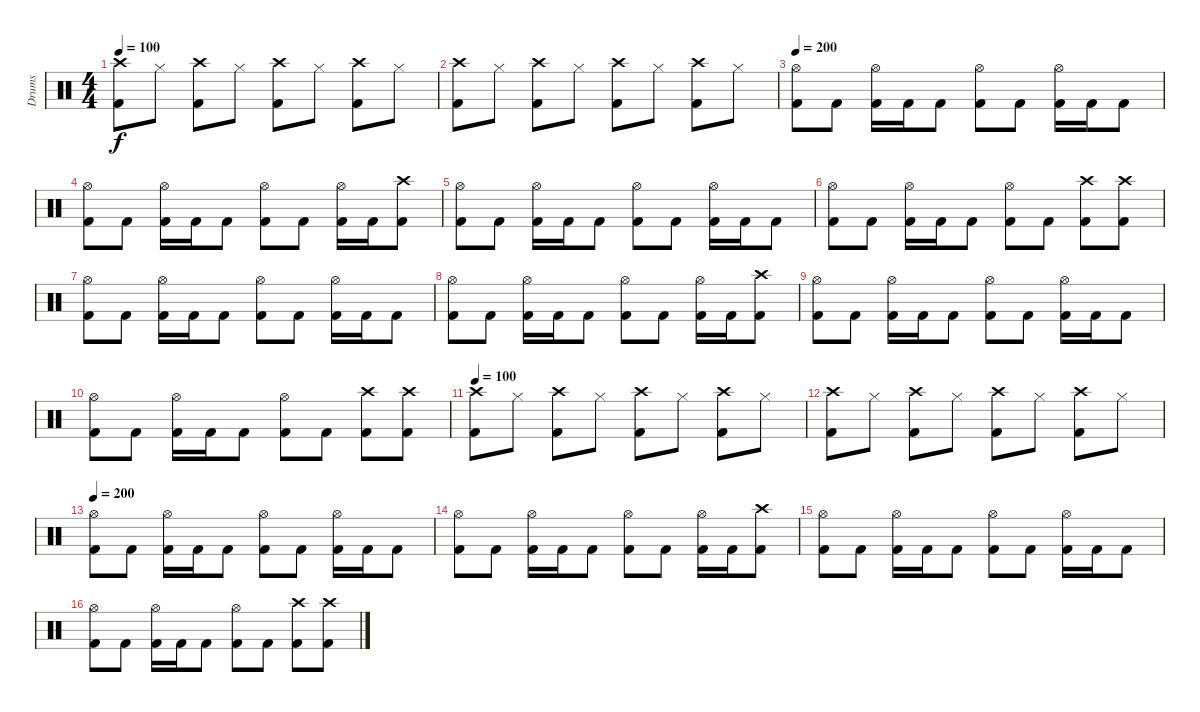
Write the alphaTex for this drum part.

\track ("Drums" "Drums") {instrument percussion}
\staff {score}
\articulation defaults
\ts (4 4)
\tempo 100
\clef neutral
\ks c
("Crash high (hit)" "Kick (hit) 2").8{dy f} "Hi-Hat (closed)".8 ("Crash high (hit)" "Kick (hit) 2").8 "Hi-Hat (closed)".8 ("Crash high (hit)" "Kick (hit) 2").8 "Hi-Hat (closed)".8 ("Crash high (hit)" "Kick (hit) 2").8 "Hi-Hat (closed)".8 |
("Crash high (hit)" "Kick (hit) 2").8 "Hi-Hat (closed)".8 ("Crash high (hit)" "Kick (hit) 2").8 "Hi-Hat (closed)".8 ("Crash high (hit)" "Kick (hit) 2").8 "Hi-Hat (closed)".8 ("Crash high (hit)" "Kick (hit) 2").8 "Hi-Hat (closed)".8 |
\tempo 200
("Hi-Hat (open)" "Kick (hit) 2").8 "Kick (hit) 2".8 ("Hi-Hat (open)" "Kick (hit) 2").16 "Kick (hit) 2".16 "Kick (hit) 2".8 ("Hi-Hat (open)" "Kick (hit) 2").8 "Kick (hit) 2".8 ("Hi-Hat (open)" "Kick (hit) 2").16 "Kick (hit) 2".16 "Kick (hit) 2".8 |
("Hi-Hat (open)" "Kick (hit) 2").8 "Kick (hit) 2".8 ("Hi-Hat (open)" "Kick (hit) 2").16 "Kick (hit) 2".16 "Kick (hit) 2".8 ("Hi-Hat (open)" "Kick (hit) 2").8 "Kick (hit) 2".8 ("Hi-Hat (open)" "Kick (hit) 2").16 "Kick (hit) 2".16 ("Crash high (hit)" "Kick (hit) 2").8 |
("Hi-Hat (open)" "Kick (hit) 2").8 "Kick (hit) 2".8 ("Hi-Hat (open)" "Kick (hit) 2").16 "Kick (hit) 2".16 "Kick (hit) 2".8 ("Hi-Hat (open)" "Kick (hit) 2").8 "Kick (hit) 2".8 ("Hi-Hat (open)" "Kick (hit) 2").16 "Kick (hit) 2".16 "Kick (hit) 2".8 |
("Hi-Hat (open)" "Kick (hit) 2").8 "Kick (hit) 2".8 ("Hi-Hat (open)" "Kick (hit) 2").16 "Kick (hit) 2".16 "Kick (hit) 2".8 ("Hi-Hat (open)" "Kick (hit) 2").8 "Kick (hit) 2".8 ("Crash high (hit)" "Kick (hit) 2").8 ("Crash high (hit)" "Kick (hit) 2").8 |
("Hi-Hat (open)" "Kick (hit) 2").8 "Kick (hit) 2".8 ("Hi-Hat (open)" "Kick (hit) 2").16 "Kick (hit) 2".16 "Kick (hit) 2".8 ("Hi-Hat (open)" "Kick (hit) 2").8 "Kick (hit) 2".8 ("Hi-Hat (open)" "Kick (hit) 2").16 "Kick (hit) 2".16 "Kick (hit) 2".8 |
("Hi-Hat (open)" "Kick (hit) 2").8 "Kick (hit) 2".8 ("Hi-Hat (open)" "Kick (hit) 2").16 "Kick (hit) 2".16 "Kick (hit) 2".8 ("Hi-Hat (open)" "Kick (hit) 2").8 "Kick (hit) 2".8 ("Hi-Hat (open)" "Kick (hit) 2").16 "Kick (hit) 2".16 ("Crash high (hit)" "Kick (hit) 2").8 |
("Hi-Hat (open)" "Kick (hit) 2").8 "Kick (hit) 2".8 ("Hi-Hat (open)" "Kick (hit) 2").16 "Kick (hit) 2".16 "Kick (hit) 2".8 ("Hi-Hat (open)" "Kick (hit) 2").8 "Kick (hit) 2".8 ("Hi-Hat (open)" "Kick (hit) 2").16 "Kick (hit) 2".16 "Kick (hit) 2".8 |
("Hi-Hat (open)" "Kick (hit) 2").8 "Kick (hit) 2".8 ("Hi-Hat (open)" "Kick (hit) 2").16 "Kick (hit) 2".16 "Kick (hit) 2".8 ("Hi-Hat (open)" "Kick (hit) 2").8 "Kick (hit) 2".8 ("Crash high (hit)" "Kick (hit) 2").8 ("Crash high (hit)" "Kick (hit) 2").8 |
\tempo 100
("Crash high (hit)" "Kick (hit) 2").8 "Hi-Hat (closed)".8 ("Crash high (hit)" "Kick (hit) 2").8 "Hi-Hat (closed)".8 ("Crash high (hit)" "Kick (hit) 2").8 "Hi-Hat (closed)".8 ("Crash high (hit)" "Kick (hit) 2").8 "Hi-Hat (closed)".8 |
("Crash high (hit)" "Kick (hit) 2").8 "Hi-Hat (closed)".8 ("Crash high (hit)" "Kick (hit) 2").8 "Hi-Hat (closed)".8 ("Crash high (hit)" "Kick (hit) 2").8 "Hi-Hat (closed)".8 ("Crash high (hit)" "Kick (hit) 2").8 "Hi-Hat (closed)".8 |
\tempo 200
("Hi-Hat (open)" "Kick (hit) 2").8 "Kick (hit) 2".8 ("Hi-Hat (open)" "Kick (hit) 2").16 "Kick (hit) 2".16 "Kick (hit) 2".8 ("Hi-Hat (open)" "Kick (hit) 2").8 "Kick (hit) 2".8 ("Hi-Hat (open)" "Kick (hit) 2").16 "Kick (hit) 2".16 "Kick (hit) 2".8 |
("Hi-Hat (open)" "Kick (hit) 2").8 "Kick (hit) 2".8 ("Hi-Hat (open)" "Kick (hit) 2").16 "Kick (hit) 2".16 "Kick (hit) 2".8 ("Hi-Hat (open)" "Kick (hit) 2").8 "Kick (hit) 2".8 ("Hi-Hat (open)" "Kick (hit) 2").16 "Kick (hit) 2".16 ("Crash high (hit)" "Kick (hit) 2").8 |
("Hi-Hat (open)" "Kick (hit) 2").8 "Kick (hit) 2".8 ("Hi-Hat (open)" "Kick (hit) 2").16 "Kick (hit) 2".16 "Kick (hit) 2".8 ("Hi-Hat (open)" "Kick (hit) 2").8 "Kick (hit) 2".8 ("Hi-Hat (open)" "Kick (hit) 2").16 "Kick (hit) 2".16 "Kick (hit) 2".8 |
("Hi-Hat (open)" "Kick (hit) 2").8 "Kick (hit) 2".8 ("Hi-Hat (open)" "Kick (hit) 2").16 "Kick (hit) 2".16 "Kick (hit) 2".8 ("Hi-Hat (open)" "Kick (hit) 2").8 "Kick (hit) 2".8 ("Crash high (hit)" "Kick (hit) 2").8 ("Crash high (hit)" "Kick (hit) 2").8
